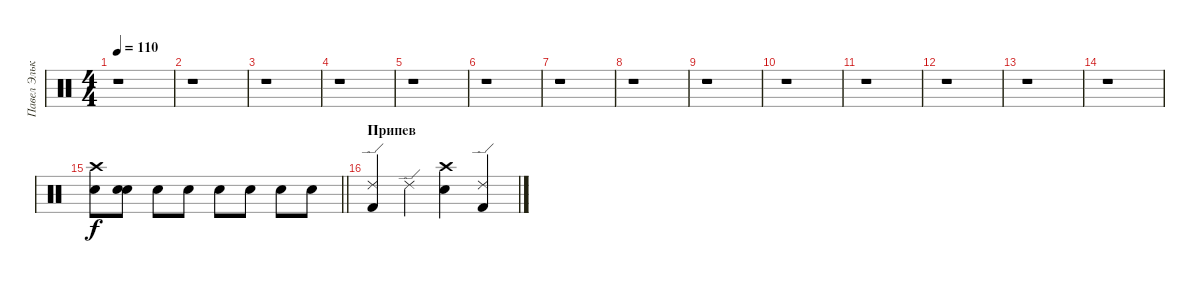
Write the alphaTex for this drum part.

\track ("Павел Элькинд" "Павел Эльк") {instrument percussion}
\staff {score}
\articulation defaults
\ts (4 4)
\tempo 110
\clef neutral
\ks c
r.1{dy f} |
r.1 |
r.1 |
r.1 |
r.1 |
r.1 |
r.1 |
r.1 |
r.1 |
r.1 |
r.1 |
r.1 |
r.1 |
r.1 |
\barLineRight lightlight
("Electric Snare (hit)" "Crash high (hit)").8 ("Electric Snare (hit)" "Electric Snare (hit)").8 "Electric Snare (hit)".8 "Electric Snare (hit)".8 "Electric Snare (hit)".8 "Electric Snare (hit)".8 "Electric Snare (hit)".8 "Electric Snare (hit)".8 |
\section ("" "Припев")
("Kick (hit) 2" "Ride (edge) 2").4 "Ride (edge) 2".4 ("Electric Snare (hit)" "Crash high (hit)").4 ("Kick (hit) 2" "Ride (edge) 2").4
